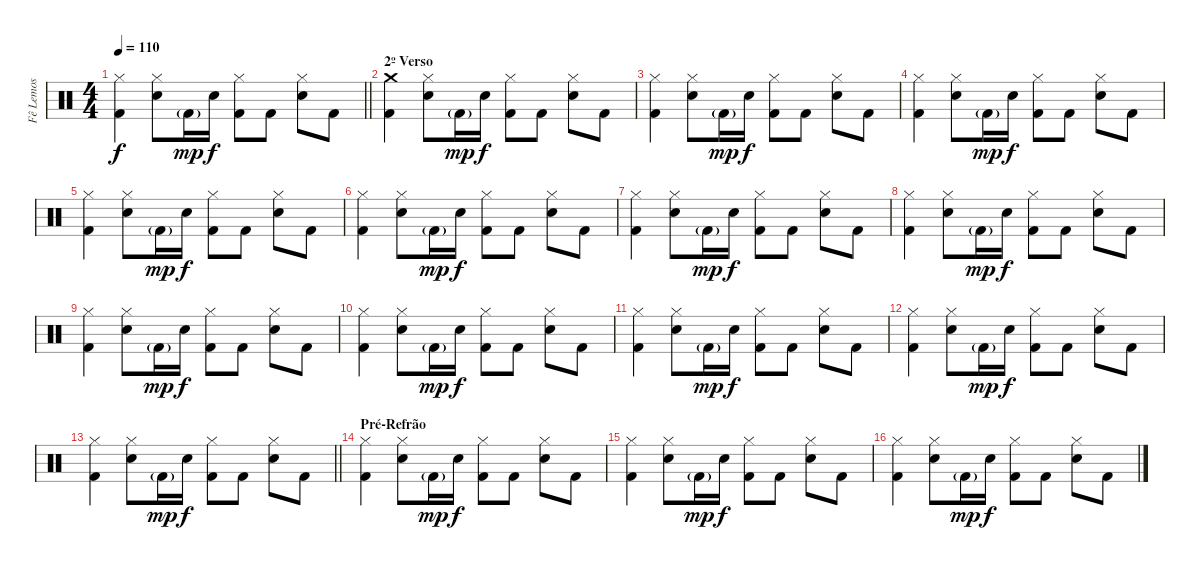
\track ("Fê Lemos" "Fê Lemos") {instrument percussion}
\staff {score}
\articulation defaults
\ts (4 4)
\tempo 110
\clef neutral
\barLineRight lightlight
\ks c
("Hi-Hat (closed)" "Kick (hit) 2").4{dy f} ("Hi-Hat (closed)" "Electric Snare (hit)").8 "Kick (hit) 2"{g}.16{dy mp} "Electric Snare (hit)".16{dy f} ("Hi-Hat (closed)" "Kick (hit) 2").8 "Kick (hit) 2".8 ("Hi-Hat (closed)" "Electric Snare (hit)").8 "Kick (hit) 2".8 |
\section ("" "2º Verso")
("Crash medium (hit)" "Kick (hit) 2").4 ("Hi-Hat (closed)" "Electric Snare (hit)").8 "Kick (hit) 2"{g}.16{dy mp} "Electric Snare (hit)".16{dy f} ("Hi-Hat (closed)" "Kick (hit) 2").8 "Kick (hit) 2".8 ("Hi-Hat (closed)" "Electric Snare (hit)").8 "Kick (hit) 2".8 |
("Hi-Hat (closed)" "Kick (hit) 2").4 ("Hi-Hat (closed)" "Electric Snare (hit)").8 "Kick (hit) 2"{g}.16{dy mp} "Electric Snare (hit)".16{dy f} ("Hi-Hat (closed)" "Kick (hit) 2").8 "Kick (hit) 2".8 ("Hi-Hat (closed)" "Electric Snare (hit)").8 "Kick (hit) 2".8 |
("Hi-Hat (closed)" "Kick (hit) 2").4 ("Hi-Hat (closed)" "Electric Snare (hit)").8 "Kick (hit) 2"{g}.16{dy mp} "Electric Snare (hit)".16{dy f} ("Hi-Hat (closed)" "Kick (hit) 2").8 "Kick (hit) 2".8 ("Hi-Hat (closed)" "Electric Snare (hit)").8 "Kick (hit) 2".8 |
("Hi-Hat (closed)" "Kick (hit) 2").4 ("Hi-Hat (closed)" "Electric Snare (hit)").8 "Kick (hit) 2"{g}.16{dy mp} "Electric Snare (hit)".16{dy f} ("Hi-Hat (closed)" "Kick (hit) 2").8 "Kick (hit) 2".8 ("Hi-Hat (closed)" "Electric Snare (hit)").8 "Kick (hit) 2".8 |
("Hi-Hat (closed)" "Kick (hit) 2").4 ("Hi-Hat (closed)" "Electric Snare (hit)").8 "Kick (hit) 2"{g}.16{dy mp} "Electric Snare (hit)".16{dy f} ("Hi-Hat (closed)" "Kick (hit) 2").8 "Kick (hit) 2".8 ("Hi-Hat (closed)" "Electric Snare (hit)").8 "Kick (hit) 2".8 |
("Hi-Hat (closed)" "Kick (hit) 2").4 ("Hi-Hat (closed)" "Electric Snare (hit)").8 "Kick (hit) 2"{g}.16{dy mp} "Electric Snare (hit)".16{dy f} ("Hi-Hat (closed)" "Kick (hit) 2").8 "Kick (hit) 2".8 ("Hi-Hat (closed)" "Electric Snare (hit)").8 "Kick (hit) 2".8 |
("Hi-Hat (closed)" "Kick (hit) 2").4 ("Hi-Hat (closed)" "Electric Snare (hit)").8 "Kick (hit) 2"{g}.16{dy mp} "Electric Snare (hit)".16{dy f} ("Hi-Hat (closed)" "Kick (hit) 2").8 "Kick (hit) 2".8 ("Hi-Hat (closed)" "Electric Snare (hit)").8 "Kick (hit) 2".8 |
("Hi-Hat (closed)" "Kick (hit) 2").4 ("Hi-Hat (closed)" "Electric Snare (hit)").8 "Kick (hit) 2"{g}.16{dy mp} "Electric Snare (hit)".16{dy f} ("Hi-Hat (closed)" "Kick (hit) 2").8 "Kick (hit) 2".8 ("Hi-Hat (closed)" "Electric Snare (hit)").8 "Kick (hit) 2".8 |
("Hi-Hat (closed)" "Kick (hit) 2").4 ("Hi-Hat (closed)" "Electric Snare (hit)").8 "Kick (hit) 2"{g}.16{dy mp} "Electric Snare (hit)".16{dy f} ("Hi-Hat (closed)" "Kick (hit) 2").8 "Kick (hit) 2".8 ("Hi-Hat (closed)" "Electric Snare (hit)").8 "Kick (hit) 2".8 |
("Hi-Hat (closed)" "Kick (hit) 2").4 ("Hi-Hat (closed)" "Electric Snare (hit)").8 "Kick (hit) 2"{g}.16{dy mp} "Electric Snare (hit)".16{dy f} ("Hi-Hat (closed)" "Kick (hit) 2").8 "Kick (hit) 2".8 ("Hi-Hat (closed)" "Electric Snare (hit)").8 "Kick (hit) 2".8 |
("Hi-Hat (closed)" "Kick (hit) 2").4 ("Hi-Hat (closed)" "Electric Snare (hit)").8 "Kick (hit) 2"{g}.16{dy mp} "Electric Snare (hit)".16{dy f} ("Hi-Hat (closed)" "Kick (hit) 2").8 "Kick (hit) 2".8 ("Hi-Hat (closed)" "Electric Snare (hit)").8 "Kick (hit) 2".8 |
\barLineRight lightlight
("Hi-Hat (closed)" "Kick (hit) 2").4 ("Hi-Hat (closed)" "Electric Snare (hit)").8 "Kick (hit) 2"{g}.16{dy mp} "Electric Snare (hit)".16{dy f} ("Hi-Hat (closed)" "Kick (hit) 2").8 "Kick (hit) 2".8 ("Hi-Hat (closed)" "Electric Snare (hit)").8 "Kick (hit) 2".8 |
\section ("" "Pré-Refrão")
("Hi-Hat (closed)" "Kick (hit) 2").4 ("Hi-Hat (closed)" "Electric Snare (hit)").8 "Kick (hit) 2"{g}.16{dy mp} "Electric Snare (hit)".16{dy f} ("Hi-Hat (closed)" "Kick (hit) 2").8 "Kick (hit) 2".8 ("Hi-Hat (closed)" "Electric Snare (hit)").8 "Kick (hit) 2".8 |
("Hi-Hat (closed)" "Kick (hit) 2").4 ("Hi-Hat (closed)" "Electric Snare (hit)").8 "Kick (hit) 2"{g}.16{dy mp} "Electric Snare (hit)".16{dy f} ("Hi-Hat (closed)" "Kick (hit) 2").8 "Kick (hit) 2".8 ("Hi-Hat (closed)" "Electric Snare (hit)").8 "Kick (hit) 2".8 |
("Hi-Hat (closed)" "Kick (hit) 2").4 ("Hi-Hat (closed)" "Electric Snare (hit)").8 "Kick (hit) 2"{g}.16{dy mp} "Electric Snare (hit)".16{dy f} ("Hi-Hat (closed)" "Kick (hit) 2").8 "Kick (hit) 2".8 ("Hi-Hat (closed)" "Electric Snare (hit)").8 "Kick (hit) 2".8
